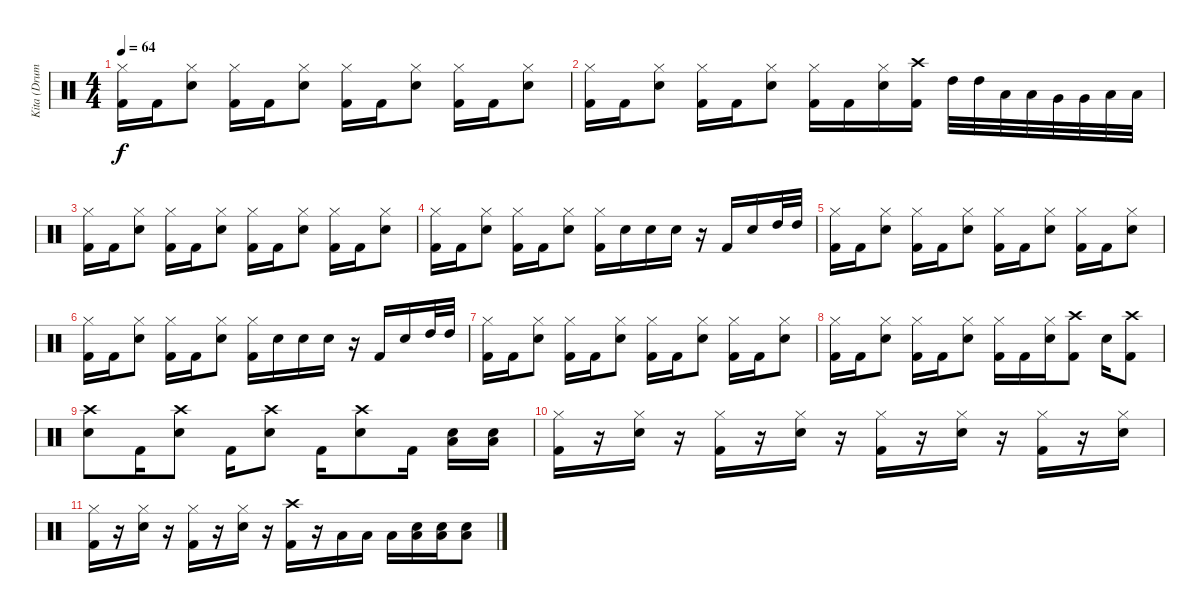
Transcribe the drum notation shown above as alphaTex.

\track ("Kita (Drums)" "Kita (Drum") {instrument percussion}
\staff {score}
\articulation defaults
\ts (4 4)
\tempo 64
\clef neutral
\ks c
("Kick (hit) 2" "Hi-Hat (closed)").16{dy f} "Kick (hit) 2".16 ("Electric Snare (hit)" "Hi-Hat (closed)").8 ("Kick (hit) 2" "Hi-Hat (closed)").16 "Kick (hit) 2".16 ("Electric Snare (hit)" "Hi-Hat (closed)").8 ("Kick (hit) 2" "Hi-Hat (closed)").16 "Kick (hit) 2".16 ("Electric Snare (hit)" "Hi-Hat (closed)").8 ("Kick (hit) 2" "Hi-Hat (closed)").16 "Kick (hit) 2".16 ("Electric Snare (hit)" "Hi-Hat (closed)").8 |
("Kick (hit) 2" "Hi-Hat (closed)").16 "Kick (hit) 2".16 ("Electric Snare (hit)" "Hi-Hat (closed)").8 ("Kick (hit) 2" "Hi-Hat (closed)").16 "Kick (hit) 2".16 ("Electric Snare (hit)" "Hi-Hat (closed)").8 ("Kick (hit) 2" "Hi-Hat (closed)").16 "Kick (hit) 2".16 ("Electric Snare (hit)" "Hi-Hat (closed)").16 ("Kick (hit) 2" "Crash high (hit)").16 "High Tom (hit)".32 "High Tom (hit)".32 "Low Tom (hit)".32 "Low Tom (hit)".32 "Very Low Tom (hit)".32 "Very Low Tom (hit)".32 "Low Floor Tom (hit)".32 "Low Floor Tom (hit)".32 |
("Kick (hit) 2" "Hi-Hat (closed)").16 "Kick (hit) 2".16 ("Electric Snare (hit)" "Hi-Hat (closed)").8 ("Kick (hit) 2" "Hi-Hat (closed)").16 "Kick (hit) 2".16 ("Electric Snare (hit)" "Hi-Hat (closed)").8 ("Kick (hit) 2" "Hi-Hat (closed)").16 "Kick (hit) 2".16 ("Electric Snare (hit)" "Hi-Hat (closed)").8 ("Kick (hit) 2" "Hi-Hat (closed)").16 "Kick (hit) 2".16 ("Electric Snare (hit)" "Hi-Hat (closed)").8 |
("Kick (hit) 2" "Hi-Hat (closed)").16 "Kick (hit) 2".16 ("Electric Snare (hit)" "Hi-Hat (closed)").8 ("Kick (hit) 2" "Hi-Hat (closed)").16 "Kick (hit) 2".16 ("Electric Snare (hit)" "Hi-Hat (closed)").8 ("Kick (hit) 2" "Hi-Hat (closed)").16 "Electric Snare (hit)".16 "Electric Snare (hit)".16 "Electric Snare (hit)".16 r.16 "Kick (hit) 2".16 "Electric Snare (hit)".16 "High Tom (hit)".32 "High Tom (hit)".32 |
("Kick (hit) 2" "Hi-Hat (closed)").16 "Kick (hit) 2".16 ("Electric Snare (hit)" "Hi-Hat (closed)").8 ("Kick (hit) 2" "Hi-Hat (closed)").16 "Kick (hit) 2".16 ("Electric Snare (hit)" "Hi-Hat (closed)").8 ("Kick (hit) 2" "Hi-Hat (closed)").16 "Kick (hit) 2".16 ("Electric Snare (hit)" "Hi-Hat (closed)").8 ("Kick (hit) 2" "Hi-Hat (closed)").16 "Kick (hit) 2".16 ("Electric Snare (hit)" "Hi-Hat (closed)").8 |
("Kick (hit) 2" "Hi-Hat (closed)").16 "Kick (hit) 2".16 ("Electric Snare (hit)" "Hi-Hat (closed)").8 ("Kick (hit) 2" "Hi-Hat (closed)").16 "Kick (hit) 2".16 ("Electric Snare (hit)" "Hi-Hat (closed)").8 ("Kick (hit) 2" "Hi-Hat (closed)").16 "Electric Snare (hit)".16 "Electric Snare (hit)".16 "Electric Snare (hit)".16 r.16 "Kick (hit) 2".16 "Electric Snare (hit)".16 "High Tom (hit)".32 "High Tom (hit)".32 |
("Kick (hit) 2" "Hi-Hat (closed)").16 "Kick (hit) 2".16 ("Electric Snare (hit)" "Hi-Hat (closed)").8 ("Kick (hit) 2" "Hi-Hat (closed)").16 "Kick (hit) 2".16 ("Electric Snare (hit)" "Hi-Hat (closed)").8 ("Kick (hit) 2" "Hi-Hat (closed)").16 "Kick (hit) 2".16 ("Electric Snare (hit)" "Hi-Hat (closed)").8 ("Kick (hit) 2" "Hi-Hat (closed)").16 "Kick (hit) 2".16 ("Electric Snare (hit)" "Hi-Hat (closed)").8 |
("Kick (hit) 2" "Hi-Hat (closed)").16 "Kick (hit) 2".16 ("Electric Snare (hit)" "Hi-Hat (closed)").8 ("Kick (hit) 2" "Hi-Hat (closed)").16 "Kick (hit) 2".16 ("Electric Snare (hit)" "Hi-Hat (closed)").8 ("Kick (hit) 2" "Hi-Hat (closed)").16 "Kick (hit) 2".16 ("Electric Snare (hit)" "Hi-Hat (closed)").16 ("Kick (hit) 2" "Crash high (hit)").8 "Electric Snare (hit)".16 ("Kick (hit) 2" "Crash high (hit)").8 |
("Electric Snare (hit)" "Crash high (hit)").8 "Kick (hit) 2".16 ("Electric Snare (hit)" "Crash high (hit)").8 "Kick (hit) 2".16 ("Electric Snare (hit)" "Crash high (hit)").8 "Kick (hit) 2".16 ("Electric Snare (hit)" "Crash high (hit)").8 "Kick (hit) 2".16 ("Electric Snare (hit)" "Low Floor Tom (hit)").16 ("Electric Snare (hit)" "Low Floor Tom (hit)").16 |
("Kick (hit) 2" "Hi-Hat (closed)").16 r.16 ("Electric Snare (hit)" "Hi-Hat (closed)").16 r.16 ("Kick (hit) 2" "Hi-Hat (closed)").16 r.16 ("Electric Snare (hit)" "Hi-Hat (closed)").16 r.16 ("Kick (hit) 2" "Hi-Hat (closed)").16 r.16 ("Electric Snare (hit)" "Hi-Hat (closed)").16 r.16 ("Kick (hit) 2" "Hi-Hat (closed)").16 r.16 ("Electric Snare (hit)" "Hi-Hat (closed)").16 |
("Kick (hit) 2" "Hi-Hat (closed)").16 r.16 ("Electric Snare (hit)" "Hi-Hat (closed)").16 r.16 ("Kick (hit) 2" "Hi-Hat (closed)").16 r.16 ("Electric Snare (hit)" "Hi-Hat (closed)").16 r.16 ("Kick (hit) 2" "Crash high (hit)").16 r.16 "Low Floor Tom (hit)".16 "Low Floor Tom (hit)".16 "Low Floor Tom (hit)".16 ("Electric Snare (hit)" "Low Floor Tom (hit)").16 ("Electric Snare (hit)" "Low Floor Tom (hit)").16 ("Electric Snare (hit)" "Low Floor Tom (hit)").8
